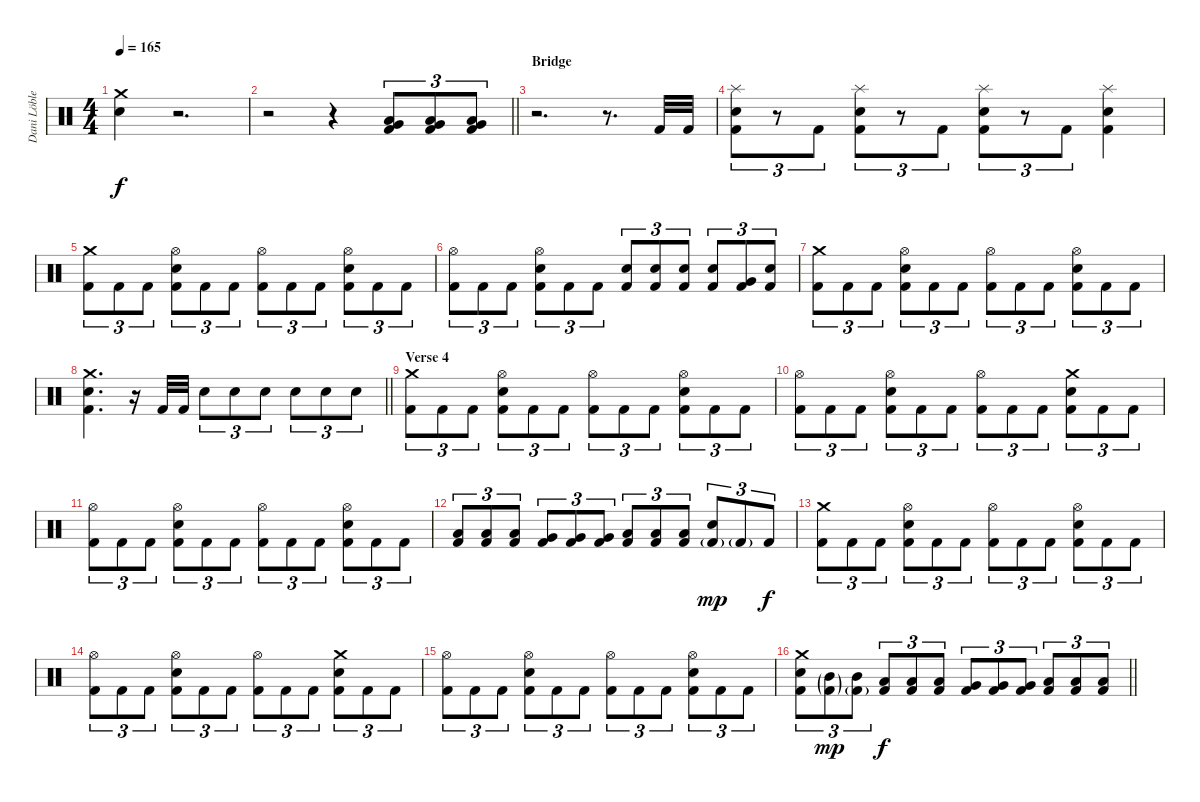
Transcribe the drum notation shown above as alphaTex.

\track ("Dani Löble" "Dani Löble") {instrument percussion}
\staff {score}
\articulation defaults
\ts (4 4)
\tempo 165
\clef neutral
\ks c
("Crash medium (hit)" "Electric Snare (hit)").4{dy f} r.2{d} |
\barLineRight lightlight
r.2 r.4 ("Very Low Tom (hit)" "Low Floor Tom (hit)" "Kick (hit) 2").8{tu (3 2)} ("Very Low Tom (hit)" "Low Floor Tom (hit)" "Kick (hit) 2").8{tu (3 2)} ("Very Low Tom (hit)" "Low Floor Tom (hit)" "Kick (hit) 2").8{tu (3 2)} |
\section ("" "Bridge")
r.2{d} r.8{d} "Kick (hit) 2".32 "Kick (hit) 2".32 |
("Splash (hit)" "Electric Snare (hit)" "Kick (hit) 2").8{tu (3 2)} r.8{tu (3 2)} "Kick (hit) 2".8{tu (3 2)} ("Splash (hit)" "Electric Snare (hit)" "Kick (hit) 2").8{tu (3 2)} r.8{tu (3 2)} "Kick (hit) 2".8{tu (3 2)} ("Splash (hit)" "Electric Snare (hit)" "Kick (hit) 2").8{tu (3 2)} r.8{tu (3 2)} "Kick (hit) 2".8{tu (3 2)} ("Splash (hit)" "Electric Snare (hit)" "Kick (hit) 2").4 |
("Crash medium (hit)" "Kick (hit) 2").8{tu (3 2)} "Kick (hit) 2".8{tu (3 2)} "Kick (hit) 2".8{tu (3 2)} ("Hi-Hat (open)" "Electric Snare (hit)" "Kick (hit) 2").8{tu (3 2)} "Kick (hit) 2".8{tu (3 2)} "Kick (hit) 2".8{tu (3 2)} ("Hi-Hat (open)" "Kick (hit) 2").8{tu (3 2)} "Kick (hit) 2".8{tu (3 2)} "Kick (hit) 2".8{tu (3 2)} ("Hi-Hat (open)" "Electric Snare (hit)" "Kick (hit) 2").8{tu (3 2)} "Kick (hit) 2".8{tu (3 2)} "Kick (hit) 2".8{tu (3 2)} |
("Hi-Hat (open)" "Kick (hit) 2").8{tu (3 2)} "Kick (hit) 2".8{tu (3 2)} "Kick (hit) 2".8{tu (3 2)} ("Hi-Hat (open)" "Electric Snare (hit)" "Kick (hit) 2").8{tu (3 2)} "Kick (hit) 2".8{tu (3 2)} "Kick (hit) 2".8{tu (3 2)} ("Electric Snare (hit)" "Kick (hit) 2").8{tu (3 2)} ("Electric Snare (hit)" "Kick (hit) 2").8{tu (3 2)} ("Electric Snare (hit)" "Kick (hit) 2").8{tu (3 2)} ("Electric Snare (hit)" "Kick (hit) 2").8{tu (3 2)} ("Very Low Tom (hit)" "Kick (hit) 2").8{tu (3 2)} ("Electric Snare (hit)" "Kick (hit) 2").8{tu (3 2)} |
("Crash medium (hit)" "Kick (hit) 2").8{tu (3 2)} "Kick (hit) 2".8{tu (3 2)} "Kick (hit) 2".8{tu (3 2)} ("Hi-Hat (open)" "Electric Snare (hit)" "Kick (hit) 2").8{tu (3 2)} "Kick (hit) 2".8{tu (3 2)} "Kick (hit) 2".8{tu (3 2)} ("Hi-Hat (open)" "Kick (hit) 2").8{tu (3 2)} "Kick (hit) 2".8{tu (3 2)} "Kick (hit) 2".8{tu (3 2)} ("Hi-Hat (open)" "Electric Snare (hit)" "Kick (hit) 2").8{tu (3 2)} "Kick (hit) 2".8{tu (3 2)} "Kick (hit) 2".8{tu (3 2)} |
\barLineRight lightlight
("Crash medium (hit)" "Electric Snare (hit)" "Kick (hit) 2").4{d} r.16 "Kick (hit) 2".32 "Kick (hit) 2".32 "Electric Snare (hit)".8{tu (3 2)} "Electric Snare (hit)".8{tu (3 2)} "Electric Snare (hit)".8{tu (3 2)} "Electric Snare (hit)".8{tu (3 2)} "Electric Snare (hit)".8{tu (3 2)} "Electric Snare (hit)".8{tu (3 2)} |
\section ("" "Verse 4")
("Crash medium (hit)" "Kick (hit) 2").8{tu (3 2)} "Kick (hit) 2".8{tu (3 2)} "Kick (hit) 2".8{tu (3 2)} ("Hi-Hat (open)" "Electric Snare (hit)" "Kick (hit) 2").8{tu (3 2)} "Kick (hit) 2".8{tu (3 2)} "Kick (hit) 2".8{tu (3 2)} ("Hi-Hat (open)" "Kick (hit) 2").8{tu (3 2)} "Kick (hit) 2".8{tu (3 2)} "Kick (hit) 2".8{tu (3 2)} ("Hi-Hat (open)" "Electric Snare (hit)" "Kick (hit) 2").8{tu (3 2)} "Kick (hit) 2".8{tu (3 2)} "Kick (hit) 2".8{tu (3 2)} |
("Hi-Hat (open)" "Kick (hit) 2").8{tu (3 2)} "Kick (hit) 2".8{tu (3 2)} "Kick (hit) 2".8{tu (3 2)} ("Hi-Hat (open)" "Electric Snare (hit)" "Kick (hit) 2").8{tu (3 2)} "Kick (hit) 2".8{tu (3 2)} "Kick (hit) 2".8{tu (3 2)} ("Hi-Hat (open)" "Kick (hit) 2").8{tu (3 2)} "Kick (hit) 2".8{tu (3 2)} "Kick (hit) 2".8{tu (3 2)} ("Crash medium (hit)" "Electric Snare (hit)" "Kick (hit) 2").8{tu (3 2)} "Kick (hit) 2".8{tu (3 2)} "Kick (hit) 2".8{tu (3 2)} |
("Hi-Hat (open)" "Kick (hit) 2").8{tu (3 2)} "Kick (hit) 2".8{tu (3 2)} "Kick (hit) 2".8{tu (3 2)} ("Hi-Hat (open)" "Electric Snare (hit)" "Kick (hit) 2").8{tu (3 2)} "Kick (hit) 2".8{tu (3 2)} "Kick (hit) 2".8{tu (3 2)} ("Hi-Hat (open)" "Kick (hit) 2").8{tu (3 2)} "Kick (hit) 2".8{tu (3 2)} "Kick (hit) 2".8{tu (3 2)} ("Hi-Hat (open)" "Electric Snare (hit)" "Kick (hit) 2").8{tu (3 2)} "Kick (hit) 2".8{tu (3 2)} "Kick (hit) 2".8{tu (3 2)} |
("Low Tom (hit)" "Kick (hit) 2").8{tu (3 2)} ("Low Tom (hit)" "Kick (hit) 2").8{tu (3 2)} ("Low Tom (hit)" "Kick (hit) 2").8{tu (3 2)} ("Very Low Tom (hit)" "Kick (hit) 2").8{tu (3 2)} ("Very Low Tom (hit)" "Kick (hit) 2").8{tu (3 2)} ("Very Low Tom (hit)" "Kick (hit) 2").8{tu (3 2)} ("Low Floor Tom (hit)" "Kick (hit) 2").8{tu (3 2)} ("Low Floor Tom (hit)" "Kick (hit) 2").8{tu (3 2)} ("Low Floor Tom (hit)" "Kick (hit) 2").8{tu (3 2)} ("Electric Snare (hit)" "Kick (hit) 2"{g}).8{tu (3 2) dy mp} "Kick (hit) 2"{g}.8{tu (3 2)} "Kick (hit) 2".8{tu (3 2) dy f} |
("Crash medium (hit)" "Kick (hit) 2").8{tu (3 2)} "Kick (hit) 2".8{tu (3 2)} "Kick (hit) 2".8{tu (3 2)} ("Hi-Hat (open)" "Electric Snare (hit)" "Kick (hit) 2").8{tu (3 2)} "Kick (hit) 2".8{tu (3 2)} "Kick (hit) 2".8{tu (3 2)} ("Hi-Hat (open)" "Kick (hit) 2").8{tu (3 2)} "Kick (hit) 2".8{tu (3 2)} "Kick (hit) 2".8{tu (3 2)} ("Hi-Hat (open)" "Electric Snare (hit)" "Kick (hit) 2").8{tu (3 2)} "Kick (hit) 2".8{tu (3 2)} "Kick (hit) 2".8{tu (3 2)} |
("Hi-Hat (open)" "Kick (hit) 2").8{tu (3 2)} "Kick (hit) 2".8{tu (3 2)} "Kick (hit) 2".8{tu (3 2)} ("Hi-Hat (open)" "Electric Snare (hit)" "Kick (hit) 2").8{tu (3 2)} "Kick (hit) 2".8{tu (3 2)} "Kick (hit) 2".8{tu (3 2)} ("Hi-Hat (open)" "Kick (hit) 2").8{tu (3 2)} "Kick (hit) 2".8{tu (3 2)} "Kick (hit) 2".8{tu (3 2)} ("Crash medium (hit)" "Electric Snare (hit)" "Kick (hit) 2").8{tu (3 2)} "Kick (hit) 2".8{tu (3 2)} "Kick (hit) 2".8{tu (3 2)} |
("Hi-Hat (open)" "Kick (hit) 2").8{tu (3 2)} "Kick (hit) 2".8{tu (3 2)} "Kick (hit) 2".8{tu (3 2)} ("Hi-Hat (open)" "Electric Snare (hit)" "Kick (hit) 2").8{tu (3 2)} "Kick (hit) 2".8{tu (3 2)} "Kick (hit) 2".8{tu (3 2)} ("Hi-Hat (open)" "Kick (hit) 2").8{tu (3 2)} "Kick (hit) 2".8{tu (3 2)} "Kick (hit) 2".8{tu (3 2)} ("Hi-Hat (open)" "Electric Snare (hit)" "Kick (hit) 2").8{tu (3 2)} "Kick (hit) 2".8{tu (3 2)} "Kick (hit) 2".8{tu (3 2)} |
\barLineRight lightlight
("Crash medium (hit)" "Electric Snare (hit)" "Kick (hit) 2").8{tu (3 2)} ("Mid Tom (hit)"{g} "Kick (hit) 2"{g}).8{tu (3 2) dy mp} ("Mid Tom (hit)" "Kick (hit) 2"{g}).8{tu (3 2)} ("Low Tom (hit)" "Kick (hit) 2").8{tu (3 2) dy f} ("Low Tom (hit)" "Kick (hit) 2").8{tu (3 2)} ("Low Tom (hit)" "Kick (hit) 2").8{tu (3 2)} ("Very Low Tom (hit)" "Kick (hit) 2").8{tu (3 2)} ("Very Low Tom (hit)" "Kick (hit) 2").8{tu (3 2)} ("Very Low Tom (hit)" "Kick (hit) 2").8{tu (3 2)} ("Low Floor Tom (hit)" "Kick (hit) 2").8{tu (3 2)} ("Low Floor Tom (hit)" "Kick (hit) 2").8{tu (3 2)} ("Low Floor Tom (hit)" "Kick (hit) 2").8{tu (3 2)}
